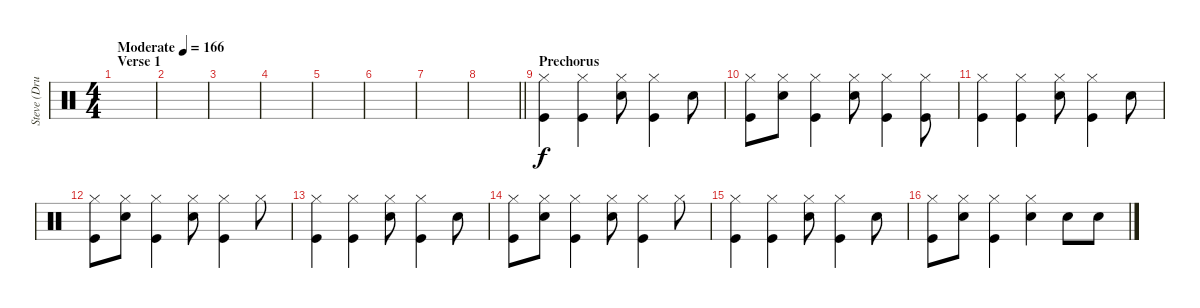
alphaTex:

\track ("Steve (Drums)" "Steve (Dru") {instrument percussion}
\staff {score}
\articulation defaults
\ts (4 4)
\section ("" "Verse 1")
\tempo (166 "Moderate")
\clef neutral
\ks c
|
|
|
|
|
|
|
\barLineRight lightlight
|
\section ("" "Prechorus")
("Hi-Hat (closed)" "Kick (hit)").4 ("Hi-Hat (closed)" "Kick (hit)").4 ("Hi-Hat (closed)" "Electric Snare (hit)").8 ("Hi-Hat (closed)" "Kick (hit)").4 "Electric Snare (hit)".8 |
("Hi-Hat (closed)" "Kick (hit)").8 ("Hi-Hat (closed)" "Electric Snare (hit)").8 ("Hi-Hat (closed)" "Kick (hit)").4 ("Hi-Hat (closed)" "Electric Snare (hit)").8 ("Hi-Hat (closed)" "Kick (hit)").4 ("Hi-Hat (closed)" "Kick (hit)").8 |
("Hi-Hat (closed)" "Kick (hit)").4 ("Hi-Hat (closed)" "Kick (hit)").4 ("Hi-Hat (closed)" "Electric Snare (hit)").8 ("Hi-Hat (closed)" "Kick (hit)").4 "Electric Snare (hit)".8 |
("Hi-Hat (closed)" "Kick (hit)").8 ("Hi-Hat (closed)" "Electric Snare (hit)").8 ("Hi-Hat (closed)" "Kick (hit)").4 ("Hi-Hat (closed)" "Electric Snare (hit)").8 ("Hi-Hat (closed)" "Kick (hit)").4 "Hi-Hat (closed)".8 |
("Hi-Hat (closed)" "Kick (hit)").4 ("Hi-Hat (closed)" "Kick (hit)").4 ("Hi-Hat (closed)" "Electric Snare (hit)").8 ("Hi-Hat (closed)" "Kick (hit)").4 "Electric Snare (hit)".8 |
("Hi-Hat (closed)" "Kick (hit)").8 ("Hi-Hat (closed)" "Electric Snare (hit)").8 ("Hi-Hat (closed)" "Kick (hit)").4 ("Hi-Hat (closed)" "Electric Snare (hit)").8 ("Hi-Hat (closed)" "Kick (hit)").4 "Hi-Hat (closed)".8 |
("Hi-Hat (closed)" "Kick (hit)").4 ("Hi-Hat (closed)" "Kick (hit)").4 ("Hi-Hat (closed)" "Electric Snare (hit)").8 ("Hi-Hat (closed)" "Kick (hit)").4 "Electric Snare (hit)".8 |
("Hi-Hat (closed)" "Kick (hit)").8 ("Hi-Hat (closed)" "Electric Snare (hit)").8 ("Hi-Hat (closed)" "Kick (hit)").4 ("Hi-Hat (closed)" "Electric Snare (hit)").4 "Electric Snare (hit)".8 "Electric Snare (hit)".8
